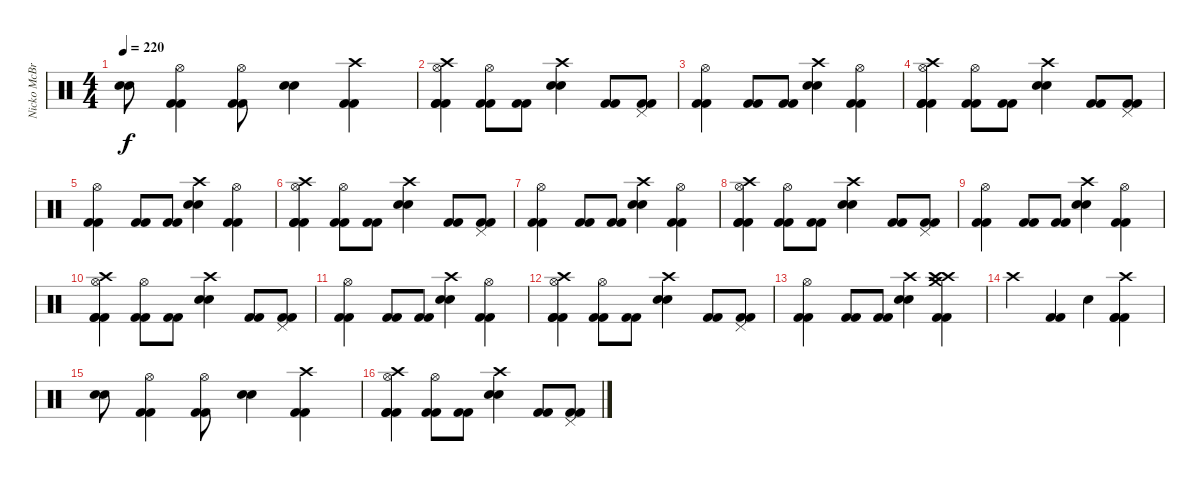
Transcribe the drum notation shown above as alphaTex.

\track ("Nicko McBrain" "Nicko McBr") {instrument percussion}
\staff {score}
\articulation defaults
\ts (4 4)
\tempo 220
\clef neutral
\ks c
("Snare (hit) 2" "Snare (hit) 2").8{dy f} ("Hi-Hat (open)" "Kick (hit) 2" "Kick (hit) 2").4 ("Hi-Hat (open)" "Kick (hit) 2" "Kick (hit) 2").8 ("Snare (hit) 2" "Snare (hit) 2").4 ("Crash high (hit)" "Kick (hit) 2" "Kick (hit) 2").4 |
("Crash high (hit)" "Hi-Hat (open)" "Kick (hit) 2" "Kick (hit) 2" "Kick (hit) 2").4 ("Hi-Hat (open)" "Kick (hit) 2" "Kick (hit) 2").8 ("Kick (hit) 2" "Kick (hit) 2").8 ("Crash high (hit)" "Snare (hit) 2" "Snare (hit) 2").4 ("Kick (hit) 2" "Kick (hit) 2").8 ("Pedal Hi-Hat (hit)" "Kick (hit) 2" "Kick (hit) 2").8 |
("Hi-Hat (open)" "Kick (hit) 2" "Kick (hit) 2").4 ("Kick (hit) 2" "Kick (hit) 2").8 ("Kick (hit) 2" "Kick (hit) 2").8 ("Crash high (hit)" "Snare (hit) 2" "Snare (hit) 2").4 ("Hi-Hat (open)" "Kick (hit) 2" "Kick (hit) 2").4 |
("Crash high (hit)" "Hi-Hat (open)" "Kick (hit) 2" "Kick (hit) 2" "Kick (hit) 2").4 ("Hi-Hat (open)" "Kick (hit) 2" "Kick (hit) 2").8 ("Kick (hit) 2" "Kick (hit) 2").8 ("Crash high (hit)" "Snare (hit) 2" "Snare (hit) 2").4 ("Kick (hit) 2" "Kick (hit) 2").8 ("Pedal Hi-Hat (hit)" "Kick (hit) 2" "Kick (hit) 2").8 |
("Hi-Hat (open)" "Kick (hit) 2" "Kick (hit) 2").4 ("Kick (hit) 2" "Kick (hit) 2").8 ("Kick (hit) 2" "Kick (hit) 2").8 ("Crash high (hit)" "Snare (hit) 2" "Snare (hit) 2").4 ("Hi-Hat (open)" "Kick (hit) 2" "Kick (hit) 2").4 |
("Crash high (hit)" "Hi-Hat (open)" "Kick (hit) 2" "Kick (hit) 2" "Kick (hit) 2").4 ("Hi-Hat (open)" "Kick (hit) 2" "Kick (hit) 2").8 ("Kick (hit) 2" "Kick (hit) 2").8 ("Crash high (hit)" "Snare (hit) 2" "Snare (hit) 2").4 ("Kick (hit) 2" "Kick (hit) 2").8 ("Pedal Hi-Hat (hit)" "Kick (hit) 2" "Kick (hit) 2").8 |
("Hi-Hat (open)" "Kick (hit) 2" "Kick (hit) 2").4 ("Kick (hit) 2" "Kick (hit) 2").8 ("Kick (hit) 2" "Kick (hit) 2").8 ("Crash high (hit)" "Snare (hit) 2" "Snare (hit) 2").4 ("Hi-Hat (open)" "Kick (hit) 2" "Kick (hit) 2").4 |
("Crash high (hit)" "Hi-Hat (open)" "Kick (hit) 2" "Kick (hit) 2" "Kick (hit) 2").4 ("Hi-Hat (open)" "Kick (hit) 2" "Kick (hit) 2").8 ("Kick (hit) 2" "Kick (hit) 2").8 ("Crash high (hit)" "Snare (hit) 2" "Snare (hit) 2").4 ("Kick (hit) 2" "Kick (hit) 2").8 ("Pedal Hi-Hat (hit)" "Kick (hit) 2" "Kick (hit) 2").8 |
("Hi-Hat (open)" "Kick (hit) 2" "Kick (hit) 2").4 ("Kick (hit) 2" "Kick (hit) 2").8 ("Kick (hit) 2" "Kick (hit) 2").8 ("Crash high (hit)" "Snare (hit) 2" "Snare (hit) 2").4 ("Hi-Hat (open)" "Kick (hit) 2" "Kick (hit) 2").4 |
("Crash high (hit)" "Hi-Hat (open)" "Kick (hit) 2" "Kick (hit) 2" "Kick (hit) 2").4 ("Hi-Hat (open)" "Kick (hit) 2" "Kick (hit) 2").8 ("Kick (hit) 2" "Kick (hit) 2").8 ("Crash high (hit)" "Snare (hit) 2" "Snare (hit) 2").4 ("Kick (hit) 2" "Kick (hit) 2").8 ("Pedal Hi-Hat (hit)" "Kick (hit) 2" "Kick (hit) 2").8 |
("Hi-Hat (open)" "Kick (hit) 2" "Kick (hit) 2").4 ("Kick (hit) 2" "Kick (hit) 2").8 ("Kick (hit) 2" "Kick (hit) 2").8 ("Crash high (hit)" "Snare (hit) 2" "Snare (hit) 2").4 ("Hi-Hat (open)" "Kick (hit) 2" "Kick (hit) 2").4 |
("Crash high (hit)" "Hi-Hat (open)" "Kick (hit) 2" "Kick (hit) 2" "Kick (hit) 2").4 ("Hi-Hat (open)" "Kick (hit) 2" "Kick (hit) 2").8 ("Kick (hit) 2" "Kick (hit) 2").8 ("Crash high (hit)" "Snare (hit) 2" "Snare (hit) 2").4 ("Kick (hit) 2" "Kick (hit) 2").8 ("Pedal Hi-Hat (hit)" "Kick (hit) 2" "Kick (hit) 2").8 |
("Hi-Hat (open)" "Kick (hit) 2" "Kick (hit) 2").4 ("Kick (hit) 2" "Kick (hit) 2").8 ("Kick (hit) 2" "Kick (hit) 2").8 ("Crash high (hit)" "Snare (hit) 2" "Snare (hit) 2").4 ("Crash high (hit)" "Crash medium (hit)" "Crash high (hit)" "Kick (hit) 2" "Kick (hit) 2").4 |
"Crash high (hit)".4 ("Kick (hit) 2" "Kick (hit) 2").4 "Snare (hit) 2".4 ("Crash high (hit)" "Kick (hit) 2" "Kick (hit) 2" "Kick (hit) 2").4 |
("Snare (hit) 2" "Snare (hit) 2").8 ("Hi-Hat (open)" "Kick (hit) 2" "Kick (hit) 2").4 ("Hi-Hat (open)" "Kick (hit) 2" "Kick (hit) 2").8 ("Snare (hit) 2" "Snare (hit) 2").4 ("Crash high (hit)" "Kick (hit) 2" "Kick (hit) 2").4 |
("Crash high (hit)" "Hi-Hat (open)" "Kick (hit) 2" "Kick (hit) 2" "Kick (hit) 2").4 ("Hi-Hat (open)" "Kick (hit) 2" "Kick (hit) 2").8 ("Kick (hit) 2" "Kick (hit) 2").8 ("Crash high (hit)" "Snare (hit) 2" "Snare (hit) 2").4 ("Kick (hit) 2" "Kick (hit) 2").8 ("Pedal Hi-Hat (hit)" "Kick (hit) 2" "Kick (hit) 2").8
